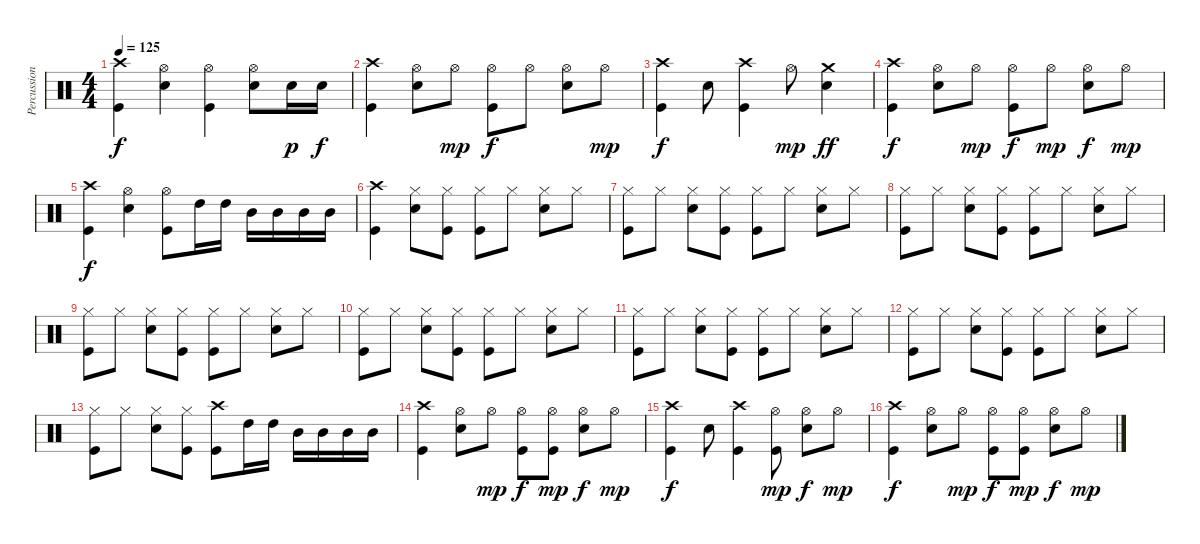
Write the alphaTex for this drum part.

\track ("Percussion" "Percussion") {instrument percussion}
\staff {score}
\articulation defaults
\ts (4 4)
\tempo 125
\clef neutral
\ks c
("Crash high (hit)" "Kick (hit)").4{dy f} ("Hi-Hat (open)" "Electric Snare (hit)").4 ("Hi-Hat (open)" "Kick (hit)").4 ("Hi-Hat (open)" "Electric Snare (hit)").8 "Electric Snare (hit)".16{dy p} "Electric Snare (hit)".16{dy f} |
("Crash high (hit)" "Kick (hit)").4 ("Hi-Hat (open)" "Electric Snare (hit)").8 "Hi-Hat (open)".8{dy mp} ("Hi-Hat (open)" "Kick (hit)").8{dy f} "Hi-Hat (open)".8 ("Hi-Hat (open)" "Electric Snare (hit)").8 "Hi-Hat (open)".8{dy mp} |
("Crash high (hit)" "Kick (hit)").4{dy f} "Electric Snare (hit)".8 ("Crash high (hit)" "Kick (hit)").4 "Hi-Hat (open)".8{dy mp} ("Crash medium (hit)" "Electric Snare (hit)").4{dy ff} |
("Crash high (hit)" "Kick (hit)").4{dy f} ("Hi-Hat (open)" "Electric Snare (hit)").8 "Hi-Hat (open)".8{dy mp} ("Hi-Hat (open)" "Kick (hit)").8{dy f} "Hi-Hat (open)".8{dy mp} ("Hi-Hat (open)" "Electric Snare (hit)").8{dy f} "Hi-Hat (open)".8{dy mp} |
("Crash high (hit)" "Kick (hit)").4{dy f} ("Hi-Hat (open)" "Electric Snare (hit)").4 ("Hi-Hat (open)" "Kick (hit)").8 "High Tom (hit)".16 "High Tom (hit)".16 "Mid Tom (hit)".16 "Mid Tom (hit)".16 "Mid Tom (hit)".16 "Mid Tom (hit)".16 |
("Crash high (hit)" "Kick (hit)").4 ("Hi-Hat (closed)" "Electric Snare (hit)").8 ("Hi-Hat (closed)" "Kick (hit)").8 ("Hi-Hat (closed)" "Kick (hit)").8 "Hi-Hat (closed)".8 ("Hi-Hat (closed)" "Electric Snare (hit)").8 "Hi-Hat (closed)".8 |
("Hi-Hat (closed)" "Kick (hit)").8 "Hi-Hat (closed)".8 ("Hi-Hat (closed)" "Electric Snare (hit)").8 ("Hi-Hat (closed)" "Kick (hit)").8 ("Hi-Hat (closed)" "Kick (hit)").8 "Hi-Hat (closed)".8 ("Hi-Hat (closed)" "Electric Snare (hit)").8 "Hi-Hat (closed)".8 |
("Hi-Hat (closed)" "Kick (hit)").8 "Hi-Hat (closed)".8 ("Hi-Hat (closed)" "Electric Snare (hit)").8 ("Hi-Hat (closed)" "Kick (hit)").8 ("Hi-Hat (closed)" "Kick (hit)").8 "Hi-Hat (closed)".8 ("Hi-Hat (closed)" "Electric Snare (hit)").8 "Hi-Hat (closed)".8 |
("Hi-Hat (closed)" "Kick (hit)").8 "Hi-Hat (closed)".8 ("Hi-Hat (closed)" "Electric Snare (hit)").8 ("Hi-Hat (closed)" "Kick (hit)").8 ("Hi-Hat (closed)" "Kick (hit)").8 "Hi-Hat (closed)".8 ("Hi-Hat (closed)" "Electric Snare (hit)").8 "Hi-Hat (closed)".8 |
("Hi-Hat (closed)" "Kick (hit)").8 "Hi-Hat (closed)".8 ("Hi-Hat (closed)" "Electric Snare (hit)").8 ("Hi-Hat (closed)" "Kick (hit)").8 ("Hi-Hat (closed)" "Kick (hit)").8 "Hi-Hat (closed)".8 ("Hi-Hat (closed)" "Electric Snare (hit)").8 "Hi-Hat (closed)".8 |
("Hi-Hat (closed)" "Kick (hit)").8 "Hi-Hat (closed)".8 ("Hi-Hat (closed)" "Electric Snare (hit)").8 ("Hi-Hat (closed)" "Kick (hit)").8 ("Hi-Hat (closed)" "Kick (hit)").8 "Hi-Hat (closed)".8 ("Hi-Hat (closed)" "Electric Snare (hit)").8 "Hi-Hat (closed)".8 |
("Hi-Hat (closed)" "Kick (hit)").8 "Hi-Hat (closed)".8 ("Hi-Hat (closed)" "Electric Snare (hit)").8 ("Hi-Hat (closed)" "Kick (hit)").8 ("Hi-Hat (closed)" "Kick (hit)").8 "Hi-Hat (closed)".8 ("Hi-Hat (closed)" "Electric Snare (hit)").8 "Hi-Hat (closed)".8 |
("Hi-Hat (closed)" "Kick (hit)").8 "Hi-Hat (closed)".8 ("Hi-Hat (closed)" "Electric Snare (hit)").8 ("Hi-Hat (closed)" "Kick (hit)").8 ("Crash high (hit)" "Kick (hit)").8 "High Tom (hit)".16 "High Tom (hit)".16 "Mid Tom (hit)".16 "Mid Tom (hit)".16 "Mid Tom (hit)".16 "Mid Tom (hit)".16 |
("Crash high (hit)" "Kick (hit)").4 ("Hi-Hat (open)" "Electric Snare (hit)").8 "Hi-Hat (open)".8{dy mp} ("Hi-Hat (open)" "Kick (hit)").8{dy f} ("Hi-Hat (open)" "Kick (hit)").8{dy mp} ("Hi-Hat (open)" "Electric Snare (hit)").8{dy f} "Hi-Hat (open)".8{dy mp} |
("Crash high (hit)" "Kick (hit)").4{dy f} "Electric Snare (hit)".8 ("Crash high (hit)" "Kick (hit)").4 ("Hi-Hat (open)" "Kick (hit)").8{dy mp} ("Hi-Hat (open)" "Electric Snare (hit)").8{dy f} "Hi-Hat (open)".8{dy mp} |
("Crash high (hit)" "Kick (hit)").4{dy f} ("Hi-Hat (open)" "Electric Snare (hit)").8 "Hi-Hat (open)".8{dy mp} ("Hi-Hat (open)" "Kick (hit)").8{dy f} ("Hi-Hat (open)" "Kick (hit)").8{dy mp} ("Hi-Hat (open)" "Electric Snare (hit)").8{dy f} "Hi-Hat (open)".8{dy mp}
